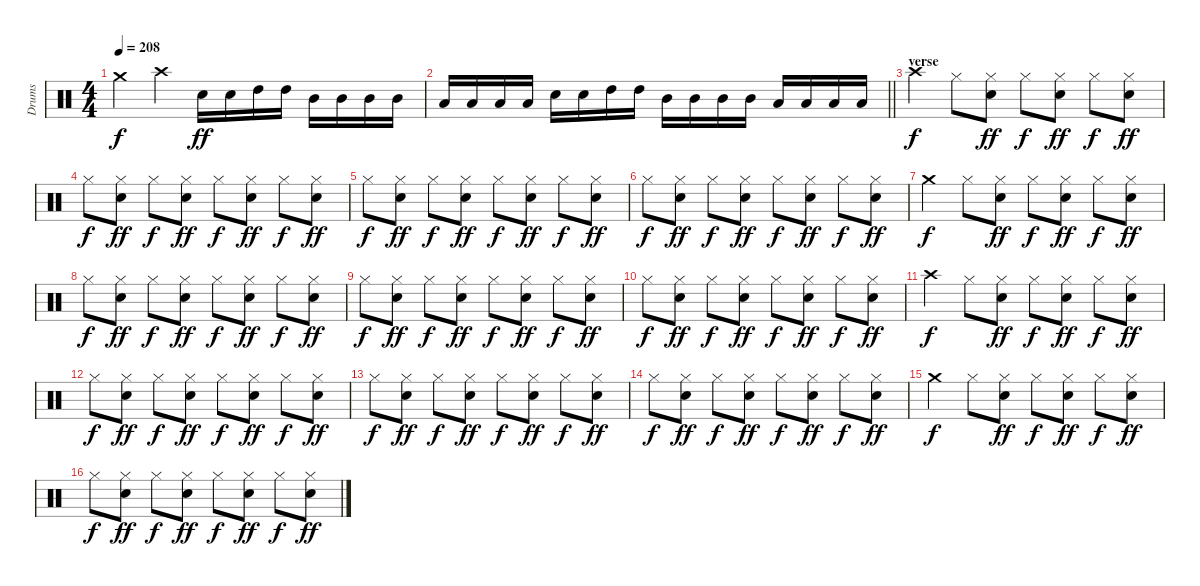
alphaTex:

\track ("Drums" "Drums") {instrument percussion}
\staff {score}
\articulation defaults
\ts (4 4)
\tempo 208
\clef neutral
\ks c "Crash medium (hit)".4{dy f} "Crash high (hit)".4 "Snare (hit) 2".16{dy ff} "Snare (hit) 2".16 "High Tom (hit)".16 "High Tom (hit)".16 "Mid Tom (hit)".16 "Mid Tom (hit)".16 "Mid Tom (hit)".16 "Mid Tom (hit)".16
|
\barLineRight lightlight "Low Tom (hit)".16 "Low Tom (hit)".16 "Low Tom (hit)".16 "Low Tom (hit)".16 "Snare (hit) 2".16 "Snare (hit) 2".16 "High Tom (hit)".16 "High Tom (hit)".16 "Mid Tom (hit)".16 "Mid Tom (hit)".16 "Mid Tom (hit)".16 "Mid Tom (hit)".16 "Low Tom (hit)".16 "Low Tom (hit)".16 "Low Tom (hit)".16 "Low Tom (hit)".16
|
\section ("" "verse")
"Crash high (hit)".4{dy f} "Hi-Hat (closed)".8 ("Hi-Hat (closed)" "Snare (hit) 2").8{dy ff} "Hi-Hat (closed)".8{dy f} ("Hi-Hat (closed)" "Snare (hit) 2").8{dy ff} "Hi-Hat (closed)".8{dy f} ("Hi-Hat (closed)" "Snare (hit) 2").8{dy ff} |
"Hi-Hat (closed)".8{dy f} ("Hi-Hat (closed)" "Snare (hit) 2").8{dy ff} "Hi-Hat (closed)".8{dy f} ("Hi-Hat (closed)" "Snare (hit) 2").8{dy ff} "Hi-Hat (closed)".8{dy f} ("Hi-Hat (closed)" "Snare (hit) 2").8{dy ff} "Hi-Hat (closed)".8{dy f} ("Hi-Hat (closed)" "Snare (hit) 2").8{dy ff} |
"Hi-Hat (closed)".8{dy f} ("Hi-Hat (closed)" "Snare (hit) 2").8{dy ff} "Hi-Hat (closed)".8{dy f} ("Hi-Hat (closed)" "Snare (hit) 2").8{dy ff} "Hi-Hat (closed)".8{dy f} ("Hi-Hat (closed)" "Snare (hit) 2").8{dy ff} "Hi-Hat (closed)".8{dy f} ("Hi-Hat (closed)" "Snare (hit) 2").8{dy ff} |
"Hi-Hat (closed)".8{dy f} ("Hi-Hat (closed)" "Snare (hit) 2").8{dy ff} "Hi-Hat (closed)".8{dy f} ("Hi-Hat (closed)" "Snare (hit) 2").8{dy ff} "Hi-Hat (closed)".8{dy f} ("Hi-Hat (closed)" "Snare (hit) 2").8{dy ff} "Hi-Hat (closed)".8{dy f} ("Hi-Hat (closed)" "Snare (hit) 2").8{dy ff} |
"Crash medium (hit)".4{dy f} "Hi-Hat (closed)".8 ("Hi-Hat (closed)" "Snare (hit) 2").8{dy ff} "Hi-Hat (closed)".8{dy f} ("Hi-Hat (closed)" "Snare (hit) 2").8{dy ff} "Hi-Hat (closed)".8{dy f} ("Hi-Hat (closed)" "Snare (hit) 2").8{dy ff} |
"Hi-Hat (closed)".8{dy f} ("Hi-Hat (closed)" "Snare (hit) 2").8{dy ff} "Hi-Hat (closed)".8{dy f} ("Hi-Hat (closed)" "Snare (hit) 2").8{dy ff} "Hi-Hat (closed)".8{dy f} ("Hi-Hat (closed)" "Snare (hit) 2").8{dy ff} "Hi-Hat (closed)".8{dy f} ("Hi-Hat (closed)" "Snare (hit) 2").8{dy ff} |
"Hi-Hat (closed)".8{dy f} ("Hi-Hat (closed)" "Snare (hit) 2").8{dy ff} "Hi-Hat (closed)".8{dy f} ("Hi-Hat (closed)" "Snare (hit) 2").8{dy ff} "Hi-Hat (closed)".8{dy f} ("Hi-Hat (closed)" "Snare (hit) 2").8{dy ff} "Hi-Hat (closed)".8{dy f} ("Hi-Hat (closed)" "Snare (hit) 2").8{dy ff} |
"Hi-Hat (closed)".8{dy f} ("Hi-Hat (closed)" "Snare (hit) 2").8{dy ff} "Hi-Hat (closed)".8{dy f} ("Hi-Hat (closed)" "Snare (hit) 2").8{dy ff} "Hi-Hat (closed)".8{dy f} ("Hi-Hat (closed)" "Snare (hit) 2").8{dy ff} "Hi-Hat (closed)".8{dy f} ("Hi-Hat (closed)" "Snare (hit) 2").8{dy ff} |
"Crash high (hit)".4{dy f} "Hi-Hat (closed)".8 ("Hi-Hat (closed)" "Snare (hit) 2").8{dy ff} "Hi-Hat (closed)".8{dy f} ("Hi-Hat (closed)" "Snare (hit) 2").8{dy ff} "Hi-Hat (closed)".8{dy f} ("Hi-Hat (closed)" "Snare (hit) 2").8{dy ff} |
"Hi-Hat (closed)".8{dy f} ("Hi-Hat (closed)" "Snare (hit) 2").8{dy ff} "Hi-Hat (closed)".8{dy f} ("Hi-Hat (closed)" "Snare (hit) 2").8{dy ff} "Hi-Hat (closed)".8{dy f} ("Hi-Hat (closed)" "Snare (hit) 2").8{dy ff} "Hi-Hat (closed)".8{dy f} ("Hi-Hat (closed)" "Snare (hit) 2").8{dy ff} |
"Hi-Hat (closed)".8{dy f} ("Hi-Hat (closed)" "Snare (hit) 2").8{dy ff} "Hi-Hat (closed)".8{dy f} ("Hi-Hat (closed)" "Snare (hit) 2").8{dy ff} "Hi-Hat (closed)".8{dy f} ("Hi-Hat (closed)" "Snare (hit) 2").8{dy ff} "Hi-Hat (closed)".8{dy f} ("Hi-Hat (closed)" "Snare (hit) 2").8{dy ff} |
"Hi-Hat (closed)".8{dy f} ("Hi-Hat (closed)" "Snare (hit) 2").8{dy ff} "Hi-Hat (closed)".8{dy f} ("Hi-Hat (closed)" "Snare (hit) 2").8{dy ff} "Hi-Hat (closed)".8{dy f} ("Hi-Hat (closed)" "Snare (hit) 2").8{dy ff} "Hi-Hat (closed)".8{dy f} ("Hi-Hat (closed)" "Snare (hit) 2").8{dy ff} |
"Crash medium (hit)".4{dy f} "Hi-Hat (closed)".8 ("Hi-Hat (closed)" "Snare (hit) 2").8{dy ff} "Hi-Hat (closed)".8{dy f} ("Hi-Hat (closed)" "Snare (hit) 2").8{dy ff} "Hi-Hat (closed)".8{dy f} ("Hi-Hat (closed)" "Snare (hit) 2").8{dy ff} |
"Hi-Hat (closed)".8{dy f} ("Hi-Hat (closed)" "Snare (hit) 2").8{dy ff} "Hi-Hat (closed)".8{dy f} ("Hi-Hat (closed)" "Snare (hit) 2").8{dy ff} "Hi-Hat (closed)".8{dy f} ("Hi-Hat (closed)" "Snare (hit) 2").8{dy ff} "Hi-Hat (closed)".8{dy f} ("Hi-Hat (closed)" "Snare (hit) 2").8{dy ff}
